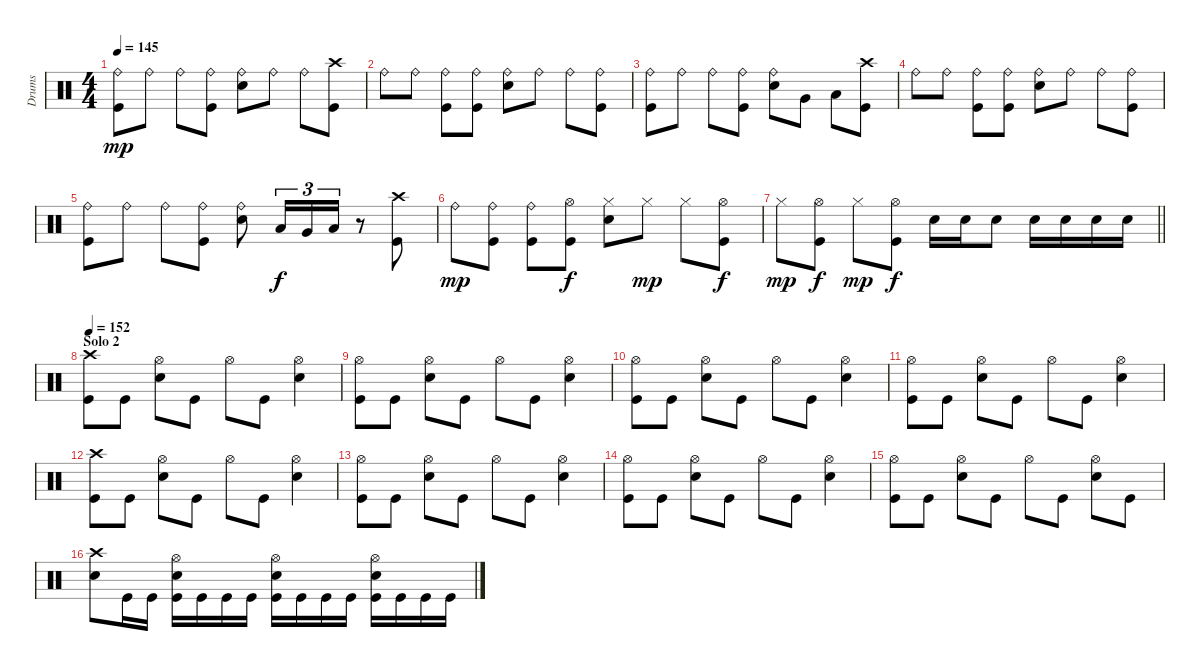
\track ("Drums" "Drums") {instrument percussion}
\staff {score}
\articulation defaults
\ts (4 4)
\tempo 145
\clef neutral
\ks c
("Ride (bell)" "Kick (hit)").8{dy mp} "Ride (bell)".8 "Ride (bell)".8 ("Ride (bell)" "Kick (hit)").8 ("Ride (bell)" "Electric Snare (hit)").8 "Ride (bell)".8 "Ride (bell)".8 ("Crash high (hit)" "Kick (hit)").8 |
"Ride (bell)".8 "Ride (bell)".8 ("Ride (bell)" "Kick (hit)").8 ("Ride (bell)" "Kick (hit)").8 ("Ride (bell)" "Electric Snare (hit)").8 "Ride (bell)".8 "Ride (bell)".8 ("Ride (bell)" "Kick (hit)").8 |
("Ride (bell)" "Kick (hit)").8 "Ride (bell)".8 "Ride (bell)".8 ("Ride (bell)" "Kick (hit)").8 ("Ride (bell)" "Electric Snare (hit)").8 "Very Low Tom (hit)".8 "Low Floor Tom (hit)".8 ("Crash high (hit)" "Kick (hit)").8 |
"Ride (bell)".8 "Ride (bell)".8 ("Ride (bell)" "Kick (hit)").8 ("Ride (bell)" "Kick (hit)").8 ("Ride (bell)" "Electric Snare (hit)").8 "Ride (bell)".8 "Ride (bell)".8 ("Ride (bell)" "Kick (hit)").8 |
("Ride (bell)" "Kick (hit)").8 "Ride (bell)".8 "Ride (bell)".8 ("Ride (bell)" "Kick (hit)").8 ("Ride (bell)" "Electric Snare (hit)").8 "Low Tom (hit)".16{tu (3 2) dy f} "Very Low Tom (hit)".16{tu (3 2)} "Low Floor Tom (hit)".16{tu (3 2)} r.8 ("Crash high (hit)" "Kick (hit)").8 |
"Ride (bell)".8{dy mp} ("Ride (bell)" "Kick (hit)").8 ("Ride (bell)" "Kick (hit)").8 ("Hi-Hat (open)" "Kick (hit)").8{dy f} ("Hi-Hat (closed)" "Electric Snare (hit)").8 "Hi-Hat (closed)".8{dy mp} "Hi-Hat (closed)".8 ("Hi-Hat (open)" "Kick (hit)").8{dy f} |
\barLineRight lightlight "Hi-Hat (closed)".8{dy mp}
("Hi-Hat (open)" "Kick (hit)").8{dy f} "Hi-Hat (closed)".8{dy mp} ("Hi-Hat (open)" "Kick (hit)").8{dy f} "Electric Snare (hit)".16 "Electric Snare (hit)".16 "Electric Snare (hit)".8 "Electric Snare (hit)".16 "Electric Snare (hit)".16 "Electric Snare (hit)".16 "Electric Snare (hit)".16 |
\section ("" "Solo 2")
\tempo 152
("Crash high (hit)" "Kick (hit)").8 "Kick (hit)".8 ("Hi-Hat (open)" "Electric Snare (hit)").8 "Kick (hit)".8 "Hi-Hat (open)".8 "Kick (hit)".8 ("Hi-Hat (open)" "Electric Snare (hit)").4 |
("Hi-Hat (open)" "Kick (hit)").8 "Kick (hit)".8 ("Hi-Hat (open)" "Electric Snare (hit)").8 "Kick (hit)".8 "Hi-Hat (open)".8 "Kick (hit)".8 ("Hi-Hat (open)" "Electric Snare (hit)").4 |
("Hi-Hat (open)" "Kick (hit)").8 "Kick (hit)".8 ("Hi-Hat (open)" "Electric Snare (hit)").8 "Kick (hit)".8 "Hi-Hat (open)".8 "Kick (hit)".8 ("Hi-Hat (open)" "Electric Snare (hit)").4 |
("Hi-Hat (open)" "Kick (hit)").8 "Kick (hit)".8 ("Hi-Hat (open)" "Electric Snare (hit)").8 "Kick (hit)".8 "Hi-Hat (open)".8 "Kick (hit)".8 ("Hi-Hat (open)" "Electric Snare (hit)").4 |
("Crash high (hit)" "Kick (hit)").8 "Kick (hit)".8 ("Hi-Hat (open)" "Electric Snare (hit)").8 "Kick (hit)".8 "Hi-Hat (open)".8 "Kick (hit)".8 ("Hi-Hat (open)" "Electric Snare (hit)").4 |
("Hi-Hat (open)" "Kick (hit)").8 "Kick (hit)".8 ("Hi-Hat (open)" "Electric Snare (hit)").8 "Kick (hit)".8 "Hi-Hat (open)".8 "Kick (hit)".8 ("Hi-Hat (open)" "Electric Snare (hit)").4 |
("Hi-Hat (open)" "Kick (hit)").8 "Kick (hit)".8 ("Hi-Hat (open)" "Electric Snare (hit)").8 "Kick (hit)".8 "Hi-Hat (open)".8 "Kick (hit)".8 ("Hi-Hat (open)" "Electric Snare (hit)").4 |
("Hi-Hat (open)" "Kick (hit)").8 "Kick (hit)".8 ("Hi-Hat (open)" "Electric Snare (hit)").8 "Kick (hit)".8 "Hi-Hat (open)".8 "Kick (hit)".8 ("Hi-Hat (open)" "Electric Snare (hit)").8 "Kick (hit)".8 |
("Crash high (hit)" "Electric Snare (hit)").8 "Kick (hit)".16 "Kick (hit)".16 ("Hi-Hat (open)" "Electric Snare (hit)" "Kick (hit)").16 "Kick (hit)".16 "Kick (hit)".16 "Kick (hit)".16 ("Hi-Hat (open)" "Electric Snare (hit)" "Kick (hit)").16 "Kick (hit)".16 "Kick (hit)".16 "Kick (hit)".16 ("Hi-Hat (open)" "Electric Snare (hit)" "Kick (hit)").16 "Kick (hit)".16 "Kick (hit)".16 "Kick (hit)".16
